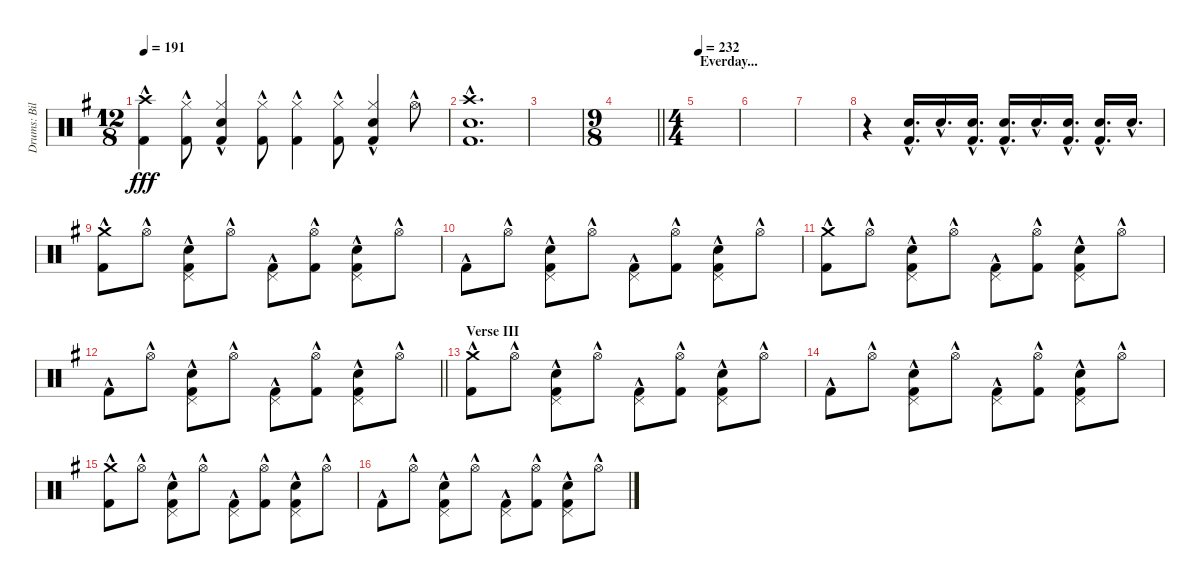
\track ("Drums: Bill" "Drums: Bil") {instrument percussion}
\staff {score}
\articulation defaults
\ts (12 8)
\tempo 191
\clef neutral
\ks g
("Crash high (hit)"{hac} "Kick (hit) 2"{hac}).4{dy fff} ("Hi-Hat (closed)"{hac} "Kick (hit) 2"{hac}).8 ("Hi-Hat (closed)"{hac} "Snare (hit) 2"{hac} "Kick (hit) 2"{hac}).4 ("Hi-Hat (closed)"{hac} "Kick (hit) 2"{hac}).8 ("Hi-Hat (closed)"{hac} "Kick (hit) 2"{hac}).4 ("Hi-Hat (closed)"{hac} "Kick (hit) 2"{hac}).8 ("Hi-Hat (closed)"{hac} "Snare (hit) 2"{hac} "Kick (hit) 2"{hac}).4 "Hi-Hat (open)"{hac}.8 |
("Crash high (hit)"{hac} "Snare (hit) 2"{hac} "Kick (hit) 2"{hac}).1{d} |
|
\ts (9 8)
\barLineRight lightlight
|
\ts (4 4)
\section ("" "Everday...")
\tempo 232
|
|
|
r.4 ("Snare (hit) 2"{hac} "Kick (hit) 2"{hac}).16{d} "Snare (hit) 2"{hac}.16{d} ("Snare (hit) 2"{hac} "Kick (hit) 2"{hac}).16{d} ("Snare (hit) 2"{hac} "Kick (hit) 2"{hac}).16{d} "Snare (hit) 2"{hac}.16{d} ("Snare (hit) 2"{hac} "Kick (hit) 2"{hac}).16{d} ("Snare (hit) 2"{hac} "Kick (hit) 2"{hac}).16{d} "Snare (hit) 2"{hac}.16{d} |
("Crash medium (hit)"{hac} "Kick (hit) 2"{hac}).8 "Hi-Hat (open)"{hac}.8 ("Pedal Hi-Hat (hit)"{hac} "Snare (hit) 2"{hac} "Kick (hit) 2"{hac}).8 "Hi-Hat (open)"{hac}.8 ("Pedal Hi-Hat (hit)"{hac} "Kick (hit) 2"{hac}).8 ("Hi-Hat (open)"{hac} "Kick (hit) 2"{hac}).8 ("Pedal Hi-Hat (hit)"{hac} "Snare (hit) 2"{hac} "Kick (hit) 2"{hac}).8 "Hi-Hat (open)"{hac}.8 |
"Kick (hit) 2"{hac}.8 "Hi-Hat (open)"{hac}.8 ("Pedal Hi-Hat (hit)"{hac} "Snare (hit) 2"{hac} "Kick (hit) 2"{hac}).8 "Hi-Hat (open)"{hac}.8 ("Pedal Hi-Hat (hit)"{hac} "Kick (hit) 2"{hac}).8 ("Hi-Hat (open)"{hac} "Kick (hit) 2"{hac}).8 ("Pedal Hi-Hat (hit)"{hac} "Snare (hit) 2"{hac} "Kick (hit) 2"{hac}).8 "Hi-Hat (open)"{hac}.8 |
("Crash medium (hit)"{hac} "Kick (hit) 2"{hac}).8 "Hi-Hat (open)"{hac}.8 ("Pedal Hi-Hat (hit)"{hac} "Snare (hit) 2"{hac} "Kick (hit) 2"{hac}).8 "Hi-Hat (open)"{hac}.8 ("Pedal Hi-Hat (hit)"{hac} "Kick (hit) 2"{hac}).8 ("Hi-Hat (open)"{hac} "Kick (hit) 2"{hac}).8 ("Pedal Hi-Hat (hit)"{hac} "Snare (hit) 2"{hac} "Kick (hit) 2"{hac}).8 "Hi-Hat (open)"{hac}.8 |
\barLineRight lightlight "Kick (hit) 2"{hac}.8 "Hi-Hat (open)"{hac}.8
("Pedal Hi-Hat (hit)"{hac} "Snare (hit) 2"{hac} "Kick (hit) 2"{hac}).8 "Hi-Hat (open)"{hac}.8 ("Pedal Hi-Hat (hit)"{hac} "Kick (hit) 2"{hac}).8 ("Hi-Hat (open)"{hac} "Kick (hit) 2"{hac}).8 ("Pedal Hi-Hat (hit)"{hac} "Snare (hit) 2"{hac} "Kick (hit) 2"{hac}).8 "Hi-Hat (open)"{hac}.8 |
\section ("" "Verse III")
("Crash medium (hit)"{hac} "Kick (hit) 2"{hac}).8 "Hi-Hat (open)"{hac}.8 ("Pedal Hi-Hat (hit)"{hac} "Snare (hit) 2"{hac} "Kick (hit) 2"{hac}).8 "Hi-Hat (open)"{hac}.8 ("Pedal Hi-Hat (hit)"{hac} "Kick (hit) 2"{hac}).8 ("Hi-Hat (open)"{hac} "Kick (hit) 2"{hac}).8 ("Pedal Hi-Hat (hit)"{hac} "Snare (hit) 2"{hac} "Kick (hit) 2"{hac}).8 "Hi-Hat (open)"{hac}.8 |
"Kick (hit) 2"{hac}.8 "Hi-Hat (open)"{hac}.8 ("Pedal Hi-Hat (hit)"{hac} "Snare (hit) 2"{hac} "Kick (hit) 2"{hac}).8 "Hi-Hat (open)"{hac}.8 ("Pedal Hi-Hat (hit)"{hac} "Kick (hit) 2"{hac}).8 ("Hi-Hat (open)"{hac} "Kick (hit) 2"{hac}).8 ("Pedal Hi-Hat (hit)"{hac} "Snare (hit) 2"{hac} "Kick (hit) 2"{hac}).8 "Hi-Hat (open)"{hac}.8 |
("Crash medium (hit)"{hac} "Kick (hit) 2"{hac}).8 "Hi-Hat (open)"{hac}.8 ("Pedal Hi-Hat (hit)"{hac} "Snare (hit) 2"{hac} "Kick (hit) 2"{hac}).8 "Hi-Hat (open)"{hac}.8 ("Pedal Hi-Hat (hit)"{hac} "Kick (hit) 2"{hac}).8 ("Hi-Hat (open)"{hac} "Kick (hit) 2"{hac}).8 ("Pedal Hi-Hat (hit)"{hac} "Snare (hit) 2"{hac} "Kick (hit) 2"{hac}).8 "Hi-Hat (open)"{hac}.8 |
"Kick (hit) 2"{hac}.8 "Hi-Hat (open)"{hac}.8 ("Pedal Hi-Hat (hit)"{hac} "Snare (hit) 2"{hac} "Kick (hit) 2"{hac}).8 "Hi-Hat (open)"{hac}.8 ("Pedal Hi-Hat (hit)"{hac} "Kick (hit) 2"{hac}).8 ("Hi-Hat (open)"{hac} "Kick (hit) 2"{hac}).8 ("Pedal Hi-Hat (hit)"{hac} "Snare (hit) 2"{hac} "Kick (hit) 2"{hac}).8 "Hi-Hat (open)"{hac}.8
